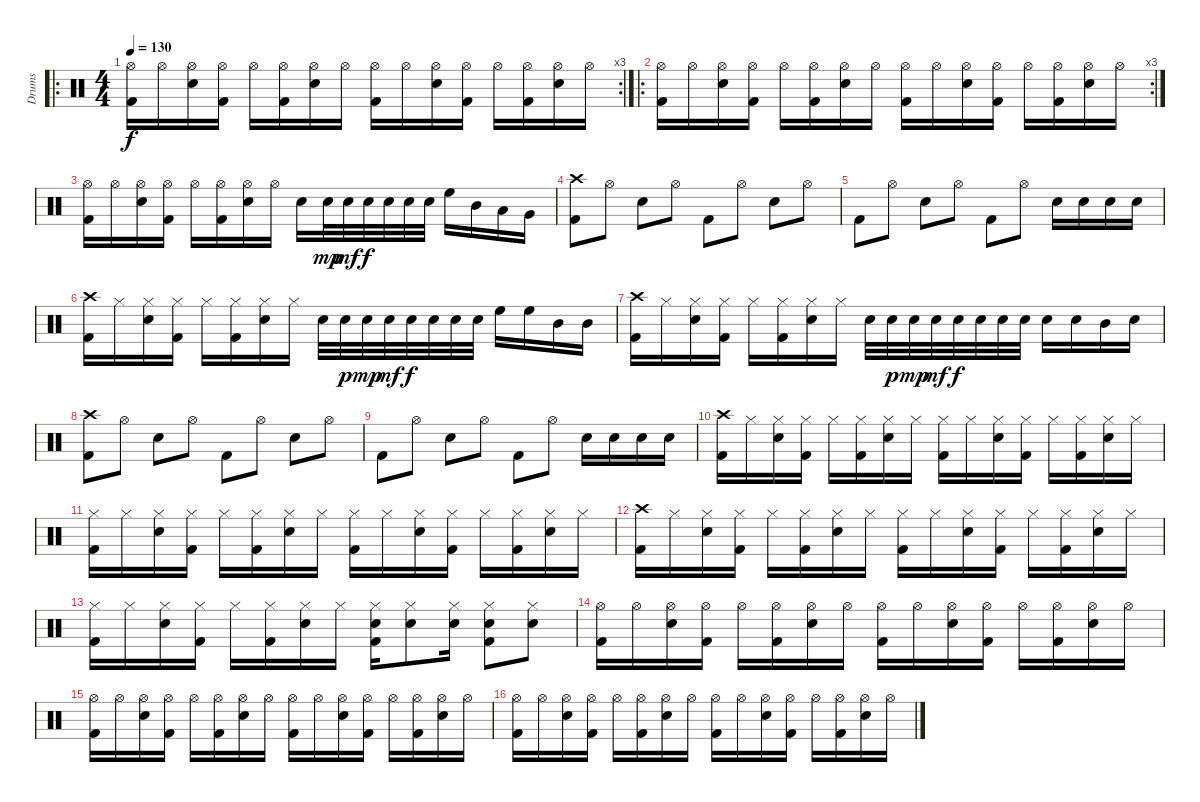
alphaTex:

\track ("Drums" "Drums") {instrument percussion}
\staff {score}
\articulation defaults
\ro
\rc 3
\ts (4 4)
\tempo 130
\clef neutral
\ks c
("Hi-Hat (open)" "Kick (hit) 2").16{dy f} "Hi-Hat (open)".16 ("Hi-Hat (open)" "Electric Snare (hit)").16 ("Hi-Hat (open)" "Kick (hit) 2").16 "Hi-Hat (open)".16 ("Hi-Hat (open)" "Kick (hit) 2").16 ("Hi-Hat (open)" "Electric Snare (hit)").16 "Hi-Hat (open)".16 ("Hi-Hat (open)" "Kick (hit) 2").16 "Hi-Hat (open)".16 ("Hi-Hat (open)" "Electric Snare (hit)").16 ("Hi-Hat (open)" "Kick (hit) 2").16 "Hi-Hat (open)".16 ("Hi-Hat (open)" "Kick (hit) 2").16 ("Hi-Hat (open)" "Electric Snare (hit)").16 "Hi-Hat (open)".16 |
\ro
\rc 3
("Hi-Hat (open)" "Kick (hit) 2").16 "Hi-Hat (open)".16 ("Hi-Hat (open)" "Electric Snare (hit)").16 ("Hi-Hat (open)" "Kick (hit) 2").16 "Hi-Hat (open)".16 ("Hi-Hat (open)" "Kick (hit) 2").16 ("Hi-Hat (open)" "Electric Snare (hit)").16 "Hi-Hat (open)".16 ("Hi-Hat (open)" "Kick (hit) 2").16 "Hi-Hat (open)".16 ("Hi-Hat (open)" "Electric Snare (hit)").16 ("Hi-Hat (open)" "Kick (hit) 2").16 "Hi-Hat (open)".16 ("Hi-Hat (open)" "Kick (hit) 2").16 ("Hi-Hat (open)" "Electric Snare (hit)").16 "Hi-Hat (open)".16 |
("Hi-Hat (open)" "Kick (hit) 2").16 "Hi-Hat (open)".16 ("Hi-Hat (open)" "Electric Snare (hit)").16 ("Hi-Hat (open)" "Kick (hit) 2").16 "Hi-Hat (open)".16 ("Hi-Hat (open)" "Kick (hit) 2").16 ("Hi-Hat (open)" "Electric Snare (hit)").16 "Hi-Hat (open)".16 "Electric Snare (hit)".16 "Electric Snare (hit)".32{dy mp} "Electric Snare (hit)".32{dy mf} "Electric Snare (hit)".32{dy f} "Electric Snare (hit)".32 "Electric Snare (hit)".32 "Electric Snare (hit)".32 "High Floor Tom (hit)".16 "Mid Tom (hit)".16 "Low Tom (hit)".16 "Very Low Tom (hit)".16 |
("Crash high (hit)" "Kick (hit) 2").8 "Hi-Hat (open)".8 "Electric Snare (hit)".8 "Hi-Hat (open)".8 "Kick (hit) 2".8 "Hi-Hat (open)".8 "Electric Snare (hit)".8 "Hi-Hat (open)".8 |
"Kick (hit) 2".8 "Hi-Hat (open)".8 "Electric Snare (hit)".8 "Hi-Hat (open)".8 "Kick (hit) 2".8 "Hi-Hat (open)".8 "Electric Snare (hit)".16 "Electric Snare (hit)".16 "Electric Snare (hit)".16 "Electric Snare (hit)".16 |
("Crash high (hit)" "Kick (hit) 2").16 "Hi-Hat (closed)".16 ("Hi-Hat (closed)" "Electric Snare (hit)").16 ("Hi-Hat (closed)" "Kick (hit) 2").16 "Hi-Hat (closed)".16 ("Hi-Hat (closed)" "Kick (hit) 2").16 ("Hi-Hat (closed)" "Electric Snare (hit)").16 "Hi-Hat (closed)".16 "Electric Snare (hit)".32 "Electric Snare (hit)".32{dy p} "Electric Snare (hit)".32{dy mp} "Electric Snare (hit)".32{dy mf} "Electric Snare (hit)".32{dy f} "Electric Snare (hit)".32 "Electric Snare (hit)".32 "Electric Snare (hit)".32 "High Floor Tom (hit)".16 "High Floor Tom (hit)".16 "Mid Tom (hit)".16 "Mid Tom (hit)".16 |
("Crash high (hit)" "Kick (hit) 2").16 "Hi-Hat (closed)".16 ("Hi-Hat (closed)" "Electric Snare (hit)").16 ("Hi-Hat (closed)" "Kick (hit) 2").16 "Hi-Hat (closed)".16 ("Hi-Hat (closed)" "Kick (hit) 2").16 ("Hi-Hat (closed)" "Electric Snare (hit)").16 "Hi-Hat (closed)".16 "Electric Snare (hit)".32 "Electric Snare (hit)".32{dy p} "Electric Snare (hit)".32{dy mp} "Electric Snare (hit)".32{dy mf} "Electric Snare (hit)".32{dy f} "Electric Snare (hit)".32 "Electric Snare (hit)".32 "Electric Snare (hit)".32 "Electric Snare (hit)".16 "Electric Snare (hit)".16 "Mid Tom (hit)".16 "Electric Snare (hit)".16 |
("Crash high (hit)" "Kick (hit) 2").8 "Hi-Hat (open)".8 "Electric Snare (hit)".8 "Hi-Hat (open)".8 "Kick (hit) 2".8 "Hi-Hat (open)".8 "Electric Snare (hit)".8 "Hi-Hat (open)".8 |
"Kick (hit) 2".8 "Hi-Hat (open)".8 "Electric Snare (hit)".8 "Hi-Hat (open)".8 "Kick (hit) 2".8 "Hi-Hat (open)".8 "Electric Snare (hit)".16 "Electric Snare (hit)".16 "Electric Snare (hit)".16 "Electric Snare (hit)".16 |
("Crash high (hit)" "Kick (hit) 2").16 "Hi-Hat (closed)".16 ("Hi-Hat (closed)" "Electric Snare (hit)").16 ("Hi-Hat (closed)" "Kick (hit) 2").16 "Hi-Hat (closed)".16 ("Hi-Hat (closed)" "Kick (hit) 2").16 ("Hi-Hat (closed)" "Electric Snare (hit)").16 "Hi-Hat (closed)".16 ("Hi-Hat (closed)" "Kick (hit) 2").16 "Hi-Hat (closed)".16 ("Hi-Hat (closed)" "Electric Snare (hit)").16 ("Hi-Hat (closed)" "Kick (hit) 2").16 "Hi-Hat (closed)".16 ("Hi-Hat (closed)" "Kick (hit) 2").16 ("Hi-Hat (closed)" "Electric Snare (hit)").16 "Hi-Hat (closed)".16 |
("Hi-Hat (closed)" "Kick (hit) 2").16 "Hi-Hat (closed)".16 ("Hi-Hat (closed)" "Electric Snare (hit)").16 ("Hi-Hat (closed)" "Kick (hit) 2").16 "Hi-Hat (closed)".16 ("Hi-Hat (closed)" "Kick (hit) 2").16 ("Hi-Hat (closed)" "Electric Snare (hit)").16 "Hi-Hat (closed)".16 ("Hi-Hat (closed)" "Kick (hit) 2").16 "Hi-Hat (closed)".16 ("Hi-Hat (closed)" "Electric Snare (hit)").16 ("Hi-Hat (closed)" "Kick (hit) 2").16 "Hi-Hat (closed)".16 ("Hi-Hat (closed)" "Kick (hit) 2").16 ("Hi-Hat (closed)" "Electric Snare (hit)").16 "Hi-Hat (closed)".16 |
("Crash high (hit)" "Kick (hit) 2").16 "Hi-Hat (closed)".16 ("Hi-Hat (closed)" "Electric Snare (hit)").16 ("Hi-Hat (closed)" "Kick (hit) 2").16 "Hi-Hat (closed)".16 ("Hi-Hat (closed)" "Kick (hit) 2").16 ("Hi-Hat (closed)" "Electric Snare (hit)").16 "Hi-Hat (closed)".16 ("Hi-Hat (closed)" "Kick (hit) 2").16 "Hi-Hat (closed)".16 ("Hi-Hat (closed)" "Electric Snare (hit)").16 ("Hi-Hat (closed)" "Kick (hit) 2").16 "Hi-Hat (closed)".16 ("Hi-Hat (closed)" "Kick (hit) 2").16 ("Hi-Hat (closed)" "Electric Snare (hit)").16 "Hi-Hat (closed)".16 |
("Hi-Hat (closed)" "Kick (hit) 2").16 "Hi-Hat (closed)".16 ("Hi-Hat (closed)" "Electric Snare (hit)").16 ("Hi-Hat (closed)" "Kick (hit) 2").16 "Hi-Hat (closed)".16 ("Hi-Hat (closed)" "Kick (hit) 2").16 ("Hi-Hat (closed)" "Electric Snare (hit)").16 "Hi-Hat (closed)".16 ("Hi-Hat (closed)" "Electric Snare (hit)" "Kick (hit) 2").16 ("Hi-Hat (closed)" "Electric Snare (hit)").8 ("Hi-Hat (closed)" "Electric Snare (hit)").16 ("Hi-Hat (closed)" "Electric Snare (hit)" "Kick (hit) 2").8 ("Hi-Hat (closed)" "Electric Snare (hit)").8 |
("Hi-Hat (open)" "Kick (hit) 2").16 "Hi-Hat (open)".16 ("Hi-Hat (open)" "Electric Snare (hit)").16 ("Hi-Hat (open)" "Kick (hit) 2").16 "Hi-Hat (open)".16 ("Hi-Hat (open)" "Kick (hit) 2").16 ("Hi-Hat (open)" "Electric Snare (hit)").16 "Hi-Hat (open)".16 ("Hi-Hat (open)" "Kick (hit) 2").16 "Hi-Hat (open)".16 ("Hi-Hat (open)" "Electric Snare (hit)").16 ("Hi-Hat (open)" "Kick (hit) 2").16 "Hi-Hat (open)".16 ("Hi-Hat (open)" "Kick (hit) 2").16 ("Hi-Hat (open)" "Electric Snare (hit)").16 "Hi-Hat (open)".16 |
("Hi-Hat (open)" "Kick (hit) 2").16 "Hi-Hat (open)".16 ("Hi-Hat (open)" "Electric Snare (hit)").16 ("Hi-Hat (open)" "Kick (hit) 2").16 "Hi-Hat (open)".16 ("Hi-Hat (open)" "Kick (hit) 2").16 ("Hi-Hat (open)" "Electric Snare (hit)").16 "Hi-Hat (open)".16 ("Hi-Hat (open)" "Kick (hit) 2").16 "Hi-Hat (open)".16 ("Hi-Hat (open)" "Electric Snare (hit)").16 ("Hi-Hat (open)" "Kick (hit) 2").16 "Hi-Hat (open)".16 ("Hi-Hat (open)" "Kick (hit) 2").16 ("Hi-Hat (open)" "Electric Snare (hit)").16 "Hi-Hat (open)".16 |
("Hi-Hat (open)" "Kick (hit) 2").16 "Hi-Hat (open)".16 ("Hi-Hat (open)" "Electric Snare (hit)").16 ("Hi-Hat (open)" "Kick (hit) 2").16 "Hi-Hat (open)".16 ("Hi-Hat (open)" "Kick (hit) 2").16 ("Hi-Hat (open)" "Electric Snare (hit)").16 "Hi-Hat (open)".16 ("Hi-Hat (open)" "Kick (hit) 2").16 "Hi-Hat (open)".16 ("Hi-Hat (open)" "Electric Snare (hit)").16 ("Hi-Hat (open)" "Kick (hit) 2").16 "Hi-Hat (open)".16 ("Hi-Hat (open)" "Kick (hit) 2").16 ("Hi-Hat (open)" "Electric Snare (hit)").16 "Hi-Hat (open)".16
